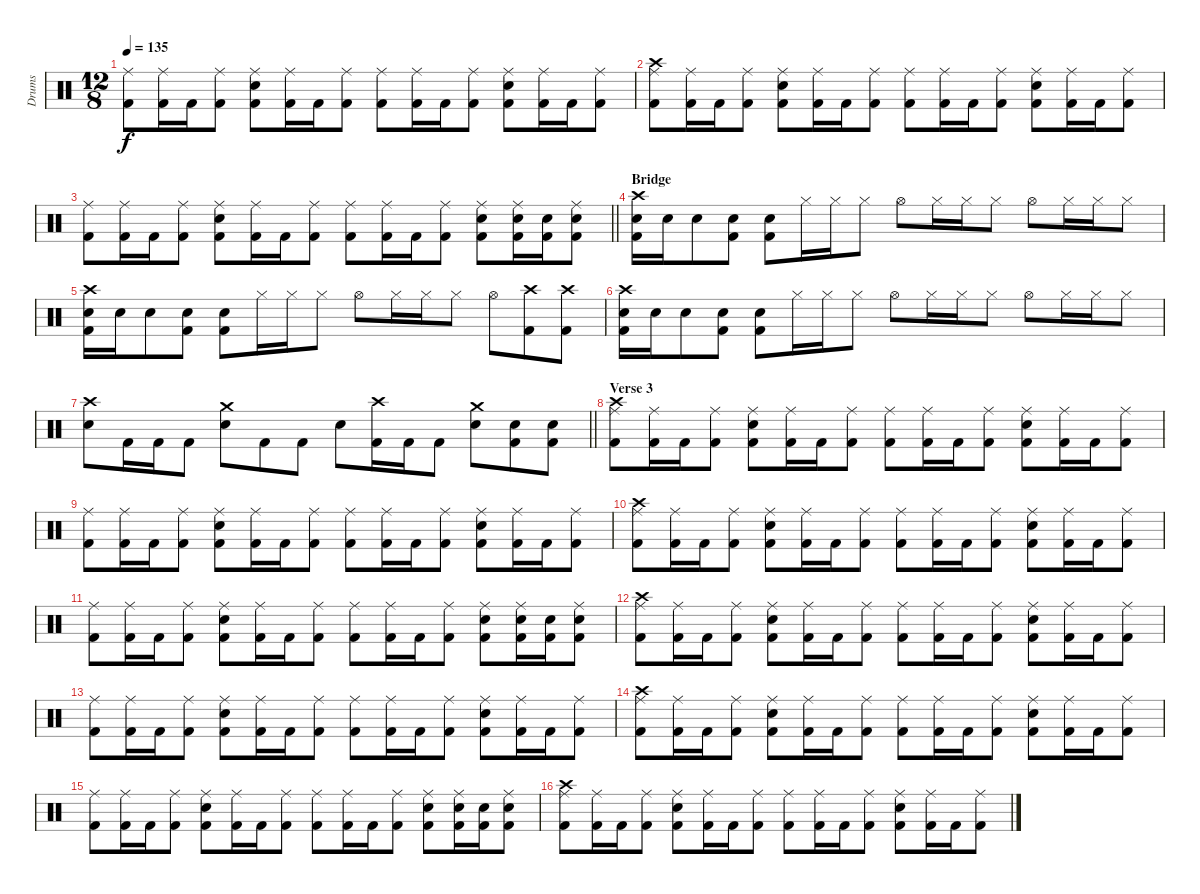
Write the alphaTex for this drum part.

\track ("Drums" "Drums") {instrument percussion}
\staff {score}
\articulation defaults
\ts (12 8)
\tempo 135
\clef neutral
\ks c
("Ride (middle)" "Kick (hit) 2").8{dy f} ("Ride (middle)" "Kick (hit) 2").16 "Kick (hit) 2".16 ("Ride (middle)" "Kick (hit) 2").8 ("Ride (middle)" "Snare (hit) 2" "Kick (hit) 2").8 ("Ride (middle)" "Kick (hit) 2").16 "Kick (hit) 2".16 ("Ride (middle)" "Kick (hit) 2").8 ("Ride (middle)" "Kick (hit) 2").8 ("Ride (middle)" "Kick (hit) 2").16 "Kick (hit) 2".16 ("Ride (middle)" "Kick (hit) 2").8 ("Ride (middle)" "Snare (hit) 2" "Kick (hit) 2").8 ("Ride (middle)" "Kick (hit) 2").16 "Kick (hit) 2".16 ("Ride (middle)" "Kick (hit) 2").8 |
("Crash high (hit)" "Ride (middle)" "Kick (hit) 2").8 ("Ride (middle)" "Kick (hit) 2").16 "Kick (hit) 2".16 ("Ride (middle)" "Kick (hit) 2").8 ("Ride (middle)" "Snare (hit) 2" "Kick (hit) 2").8 ("Ride (middle)" "Kick (hit) 2").16 "Kick (hit) 2".16 ("Ride (middle)" "Kick (hit) 2").8 ("Ride (middle)" "Kick (hit) 2").8 ("Ride (middle)" "Kick (hit) 2").16 "Kick (hit) 2".16 ("Ride (middle)" "Kick (hit) 2").8 ("Ride (middle)" "Snare (hit) 2" "Kick (hit) 2").8 ("Ride (middle)" "Kick (hit) 2").16 "Kick (hit) 2".16 ("Ride (middle)" "Kick (hit) 2").8 |
\barLineRight lightlight
("Ride (middle)" "Kick (hit) 2").8 ("Ride (middle)" "Kick (hit) 2").16 "Kick (hit) 2".16 ("Ride (middle)" "Kick (hit) 2").8 ("Ride (middle)" "Snare (hit) 2" "Kick (hit) 2").8 ("Ride (middle)" "Kick (hit) 2").16 "Kick (hit) 2".16 ("Ride (middle)" "Kick (hit) 2").8 ("Ride (middle)" "Kick (hit) 2").8 ("Ride (middle)" "Kick (hit) 2").16 "Kick (hit) 2".16 ("Ride (middle)" "Kick (hit) 2").8 ("Ride (middle)" "Snare (hit) 2" "Kick (hit) 2").8 ("Ride (middle)" "Snare (hit) 2" "Kick (hit) 2").16 ("Snare (hit) 2" "Kick (hit) 2").16 ("Ride (middle)" "Snare (hit) 2" "Kick (hit) 2").8 |
\section ("" "Bridge")
("Crash high (hit)" "Snare (hit) 2" "Kick (hit) 2").16 "Snare (hit) 2".16 "Snare (hit) 2".8 ("Snare (hit) 2" "Kick (hit) 2").8 ("Snare (hit) 2" "Kick (hit) 2").8 "Hi-Hat (closed)".16 "Hi-Hat (closed)".16 "Hi-Hat (closed)".8 "Hi-Hat (open)".8 "Hi-Hat (closed)".16 "Hi-Hat (closed)".16 "Hi-Hat (closed)".8 "Hi-Hat (open)".8 "Hi-Hat (closed)".16 "Hi-Hat (closed)".16 "Hi-Hat (closed)".8 |
("Crash high (hit)" "Snare (hit) 2" "Kick (hit) 2").16 "Snare (hit) 2".16 "Snare (hit) 2".8 ("Snare (hit) 2" "Kick (hit) 2").8 ("Snare (hit) 2" "Kick (hit) 2").8 "Hi-Hat (closed)".16 "Hi-Hat (closed)".16 "Hi-Hat (closed)".8 "Hi-Hat (open)".8 "Hi-Hat (closed)".16 "Hi-Hat (closed)".16 "Hi-Hat (closed)".8 "Hi-Hat (open)".8 ("Crash high (hit)" "Kick (hit) 2").8 ("Crash high (hit)" "Kick (hit) 2").8 |
("Crash high (hit)" "Snare (hit) 2" "Kick (hit) 2").16 "Snare (hit) 2".16 "Snare (hit) 2".8 ("Snare (hit) 2" "Kick (hit) 2").8 ("Snare (hit) 2" "Kick (hit) 2").8 "Hi-Hat (closed)".16 "Hi-Hat (closed)".16 "Hi-Hat (closed)".8 "Hi-Hat (open)".8 "Hi-Hat (closed)".16 "Hi-Hat (closed)".16 "Hi-Hat (closed)".8 "Hi-Hat (open)".8 "Hi-Hat (closed)".16 "Hi-Hat (closed)".16 "Hi-Hat (closed)".8 |
\barLineRight lightlight
("Crash high (hit)" "Snare (hit) 2").8 "Kick (hit) 2".16 "Kick (hit) 2".16 "Kick (hit) 2".8 ("Crash medium (hit)" "Snare (hit) 2").8 "Kick (hit) 2".8 "Kick (hit) 2".8 "Snare (hit) 2".8 ("Crash high (hit)" "Kick (hit) 2").16 "Kick (hit) 2".16 "Kick (hit) 2".8 ("Crash medium (hit)" "Snare (hit) 2").8 ("Snare (hit) 2" "Kick (hit) 2").8 ("Snare (hit) 2" "Kick (hit) 2").8 |
\section ("" "Verse 3")
("Crash high (hit)" "Ride (middle)" "Kick (hit) 2").8 ("Ride (middle)" "Kick (hit) 2").16 "Kick (hit) 2".16 ("Ride (middle)" "Kick (hit) 2").8 ("Ride (middle)" "Snare (hit) 2" "Kick (hit) 2").8 ("Ride (middle)" "Kick (hit) 2").16 "Kick (hit) 2".16 ("Ride (middle)" "Kick (hit) 2").8 ("Ride (middle)" "Kick (hit) 2").8 ("Ride (middle)" "Kick (hit) 2").16 "Kick (hit) 2".16 ("Ride (middle)" "Kick (hit) 2").8 ("Ride (middle)" "Snare (hit) 2" "Kick (hit) 2").8 ("Ride (middle)" "Kick (hit) 2").16 "Kick (hit) 2".16 ("Ride (middle)" "Kick (hit) 2").8 |
("Ride (middle)" "Kick (hit) 2").8 ("Ride (middle)" "Kick (hit) 2").16 "Kick (hit) 2".16 ("Ride (middle)" "Kick (hit) 2").8 ("Ride (middle)" "Snare (hit) 2" "Kick (hit) 2").8 ("Ride (middle)" "Kick (hit) 2").16 "Kick (hit) 2".16 ("Ride (middle)" "Kick (hit) 2").8 ("Ride (middle)" "Kick (hit) 2").8 ("Ride (middle)" "Kick (hit) 2").16 "Kick (hit) 2".16 ("Ride (middle)" "Kick (hit) 2").8 ("Ride (middle)" "Snare (hit) 2" "Kick (hit) 2").8 ("Ride (middle)" "Kick (hit) 2").16 "Kick (hit) 2".16 ("Ride (middle)" "Kick (hit) 2").8 |
("Crash high (hit)" "Ride (middle)" "Kick (hit) 2").8 ("Ride (middle)" "Kick (hit) 2").16 "Kick (hit) 2".16 ("Ride (middle)" "Kick (hit) 2").8 ("Ride (middle)" "Snare (hit) 2" "Kick (hit) 2").8 ("Ride (middle)" "Kick (hit) 2").16 "Kick (hit) 2".16 ("Ride (middle)" "Kick (hit) 2").8 ("Ride (middle)" "Kick (hit) 2").8 ("Ride (middle)" "Kick (hit) 2").16 "Kick (hit) 2".16 ("Ride (middle)" "Kick (hit) 2").8 ("Ride (middle)" "Snare (hit) 2" "Kick (hit) 2").8 ("Ride (middle)" "Kick (hit) 2").16 "Kick (hit) 2".16 ("Ride (middle)" "Kick (hit) 2").8 |
("Ride (middle)" "Kick (hit) 2").8 ("Ride (middle)" "Kick (hit) 2").16 "Kick (hit) 2".16 ("Ride (middle)" "Kick (hit) 2").8 ("Ride (middle)" "Snare (hit) 2" "Kick (hit) 2").8 ("Ride (middle)" "Kick (hit) 2").16 "Kick (hit) 2".16 ("Ride (middle)" "Kick (hit) 2").8 ("Ride (middle)" "Kick (hit) 2").8 ("Ride (middle)" "Kick (hit) 2").16 "Kick (hit) 2".16 ("Ride (middle)" "Kick (hit) 2").8 ("Ride (middle)" "Snare (hit) 2" "Kick (hit) 2").8 ("Ride (middle)" "Snare (hit) 2" "Kick (hit) 2").16 ("Snare (hit) 2" "Kick (hit) 2").16 ("Ride (middle)" "Snare (hit) 2" "Kick (hit) 2").8 |
("Crash high (hit)" "Ride (middle)" "Kick (hit) 2").8 ("Ride (middle)" "Kick (hit) 2").16 "Kick (hit) 2".16 ("Ride (middle)" "Kick (hit) 2").8 ("Ride (middle)" "Snare (hit) 2" "Kick (hit) 2").8 ("Ride (middle)" "Kick (hit) 2").16 "Kick (hit) 2".16 ("Ride (middle)" "Kick (hit) 2").8 ("Ride (middle)" "Kick (hit) 2").8 ("Ride (middle)" "Kick (hit) 2").16 "Kick (hit) 2".16 ("Ride (middle)" "Kick (hit) 2").8 ("Ride (middle)" "Snare (hit) 2" "Kick (hit) 2").8 ("Ride (middle)" "Kick (hit) 2").16 "Kick (hit) 2".16 ("Ride (middle)" "Kick (hit) 2").8 |
("Ride (middle)" "Kick (hit) 2").8 ("Ride (middle)" "Kick (hit) 2").16 "Kick (hit) 2".16 ("Ride (middle)" "Kick (hit) 2").8 ("Ride (middle)" "Snare (hit) 2" "Kick (hit) 2").8 ("Ride (middle)" "Kick (hit) 2").16 "Kick (hit) 2".16 ("Ride (middle)" "Kick (hit) 2").8 ("Ride (middle)" "Kick (hit) 2").8 ("Ride (middle)" "Kick (hit) 2").16 "Kick (hit) 2".16 ("Ride (middle)" "Kick (hit) 2").8 ("Ride (middle)" "Snare (hit) 2" "Kick (hit) 2").8 ("Ride (middle)" "Kick (hit) 2").16 "Kick (hit) 2".16 ("Ride (middle)" "Kick (hit) 2").8 |
("Crash high (hit)" "Ride (middle)" "Kick (hit) 2").8 ("Ride (middle)" "Kick (hit) 2").16 "Kick (hit) 2".16 ("Ride (middle)" "Kick (hit) 2").8 ("Ride (middle)" "Snare (hit) 2" "Kick (hit) 2").8 ("Ride (middle)" "Kick (hit) 2").16 "Kick (hit) 2".16 ("Ride (middle)" "Kick (hit) 2").8 ("Ride (middle)" "Kick (hit) 2").8 ("Ride (middle)" "Kick (hit) 2").16 "Kick (hit) 2".16 ("Ride (middle)" "Kick (hit) 2").8 ("Ride (middle)" "Snare (hit) 2" "Kick (hit) 2").8 ("Ride (middle)" "Kick (hit) 2").16 "Kick (hit) 2".16 ("Ride (middle)" "Kick (hit) 2").8 |
("Ride (middle)" "Kick (hit) 2").8 ("Ride (middle)" "Kick (hit) 2").16 "Kick (hit) 2".16 ("Ride (middle)" "Kick (hit) 2").8 ("Ride (middle)" "Snare (hit) 2" "Kick (hit) 2").8 ("Ride (middle)" "Kick (hit) 2").16 "Kick (hit) 2".16 ("Ride (middle)" "Kick (hit) 2").8 ("Ride (middle)" "Kick (hit) 2").8 ("Ride (middle)" "Kick (hit) 2").16 "Kick (hit) 2".16 ("Ride (middle)" "Kick (hit) 2").8 ("Ride (middle)" "Snare (hit) 2" "Kick (hit) 2").8 ("Ride (middle)" "Snare (hit) 2" "Kick (hit) 2").16 ("Snare (hit) 2" "Kick (hit) 2").16 ("Ride (middle)" "Snare (hit) 2" "Kick (hit) 2").8 |
("Crash high (hit)" "Ride (middle)" "Kick (hit) 2").8 ("Ride (middle)" "Kick (hit) 2").16 "Kick (hit) 2".16 ("Ride (middle)" "Kick (hit) 2").8 ("Ride (middle)" "Snare (hit) 2" "Kick (hit) 2").8 ("Ride (middle)" "Kick (hit) 2").16 "Kick (hit) 2".16 ("Ride (middle)" "Kick (hit) 2").8 ("Ride (middle)" "Kick (hit) 2").8 ("Ride (middle)" "Kick (hit) 2").16 "Kick (hit) 2".16 ("Ride (middle)" "Kick (hit) 2").8 ("Ride (middle)" "Snare (hit) 2" "Kick (hit) 2").8 ("Ride (middle)" "Kick (hit) 2").16 "Kick (hit) 2".16 ("Ride (middle)" "Kick (hit) 2").8
